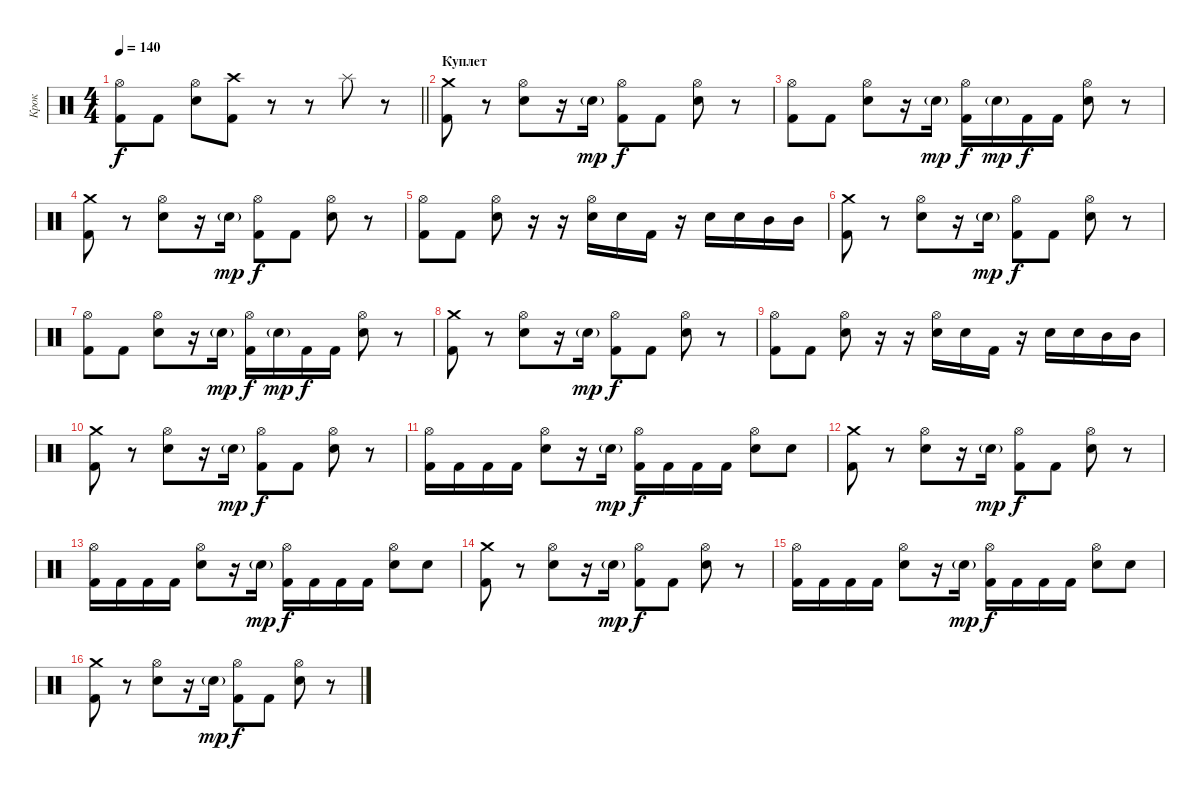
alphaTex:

\track ("Крок" "Крок") {instrument percussion}
\staff {score}
\articulation defaults
\ts (4 4)
\tempo 140
\clef neutral
\barLineRight lightlight
\ks c
("Kick (hit) 2" "Hi-Hat (open)").8{dy f} "Kick (hit) 2".8 ("Electric Snare (hit)" "Hi-Hat (open)").8 ("Kick (hit) 2" "Crash high (hit)").8 r.8 r.8 "Splash (hit)".8 r.8 |
\section ("" "Куплет")
("Kick (hit) 2" "Crash medium (hit)").8 r.8 ("Electric Snare (hit)" "Hi-Hat (open)").8 r.16 "Electric Snare (hit)"{g}.16{dy mp} ("Kick (hit) 2" "Hi-Hat (open)").8{dy f} "Kick (hit) 2".8 ("Electric Snare (hit)" "Hi-Hat (open)").8 r.8 |
("Kick (hit) 2" "Hi-Hat (open)").8 "Kick (hit) 2".8 ("Electric Snare (hit)" "Hi-Hat (open)").8 r.16 "Electric Snare (hit)"{g}.16{dy mp} ("Kick (hit) 2" "Hi-Hat (open)").16{dy f} "Electric Snare (hit)"{g}.16{dy mp} "Kick (hit) 2".16{dy f} "Kick (hit) 2".16 ("Electric Snare (hit)" "Hi-Hat (open)").8 r.8 |
("Kick (hit) 2" "Crash medium (hit)").8 r.8 ("Electric Snare (hit)" "Hi-Hat (open)").8 r.16 "Electric Snare (hit)"{g}.16{dy mp} ("Kick (hit) 2" "Hi-Hat (open)").8{dy f} "Kick (hit) 2".8 ("Electric Snare (hit)" "Hi-Hat (open)").8 r.8 |
("Kick (hit) 2" "Hi-Hat (open)").8 "Kick (hit) 2".8 ("Electric Snare (hit)" "Hi-Hat (open)").8 r.16 r.16 ("Electric Snare (hit)" "Hi-Hat (open)").16 "Electric Snare (hit)".16 "Kick (hit) 2".16 r.16 "Electric Snare (hit)".16 "Electric Snare (hit)".16 "Mid Tom (hit)".16 "Mid Tom (hit)".16 |
("Kick (hit) 2" "Crash medium (hit)").8 r.8 ("Electric Snare (hit)" "Hi-Hat (open)").8 r.16 "Electric Snare (hit)"{g}.16{dy mp} ("Kick (hit) 2" "Hi-Hat (open)").8{dy f} "Kick (hit) 2".8 ("Electric Snare (hit)" "Hi-Hat (open)").8 r.8 |
("Kick (hit) 2" "Hi-Hat (open)").8 "Kick (hit) 2".8 ("Electric Snare (hit)" "Hi-Hat (open)").8 r.16 "Electric Snare (hit)"{g}.16{dy mp} ("Kick (hit) 2" "Hi-Hat (open)").16{dy f} "Electric Snare (hit)"{g}.16{dy mp} "Kick (hit) 2".16{dy f} "Kick (hit) 2".16 ("Electric Snare (hit)" "Hi-Hat (open)").8 r.8 |
("Kick (hit) 2" "Crash medium (hit)").8 r.8 ("Electric Snare (hit)" "Hi-Hat (open)").8 r.16 "Electric Snare (hit)"{g}.16{dy mp} ("Kick (hit) 2" "Hi-Hat (open)").8{dy f} "Kick (hit) 2".8 ("Electric Snare (hit)" "Hi-Hat (open)").8 r.8 |
("Kick (hit) 2" "Hi-Hat (open)").8 "Kick (hit) 2".8 ("Electric Snare (hit)" "Hi-Hat (open)").8 r.16 r.16 ("Electric Snare (hit)" "Hi-Hat (open)").16 "Electric Snare (hit)".16 "Kick (hit) 2".16 r.16 "Electric Snare (hit)".16 "Electric Snare (hit)".16 "Mid Tom (hit)".16 "Mid Tom (hit)".16 |
("Kick (hit) 2" "Crash medium (hit)").8 r.8 ("Electric Snare (hit)" "Hi-Hat (open)").8 r.16 "Electric Snare (hit)"{g}.16{dy mp} ("Kick (hit) 2" "Hi-Hat (open)").8{dy f} "Kick (hit) 2".8 ("Electric Snare (hit)" "Hi-Hat (open)").8 r.8 |
("Kick (hit) 2" "Hi-Hat (open)").16 "Kick (hit) 2".16 "Kick (hit) 2".16 "Kick (hit) 2".16 ("Electric Snare (hit)" "Hi-Hat (open)").8 r.16 "Electric Snare (hit)"{g}.16{dy mp} ("Kick (hit) 2" "Hi-Hat (open)").16{dy f} "Kick (hit) 2".16 "Kick (hit) 2".16 "Kick (hit) 2".16 ("Electric Snare (hit)" "Hi-Hat (open)").8 "Electric Snare (hit)".8 |
("Kick (hit) 2" "Crash medium (hit)").8 r.8 ("Electric Snare (hit)" "Hi-Hat (open)").8 r.16 "Electric Snare (hit)"{g}.16{dy mp} ("Kick (hit) 2" "Hi-Hat (open)").8{dy f} "Kick (hit) 2".8 ("Electric Snare (hit)" "Hi-Hat (open)").8 r.8 |
("Kick (hit) 2" "Hi-Hat (open)").16 "Kick (hit) 2".16 "Kick (hit) 2".16 "Kick (hit) 2".16 ("Electric Snare (hit)" "Hi-Hat (open)").8 r.16 "Electric Snare (hit)"{g}.16{dy mp} ("Kick (hit) 2" "Hi-Hat (open)").16{dy f} "Kick (hit) 2".16 "Kick (hit) 2".16 "Kick (hit) 2".16 ("Electric Snare (hit)" "Hi-Hat (open)").8 "Electric Snare (hit)".8 |
("Kick (hit) 2" "Crash medium (hit)").8 r.8 ("Electric Snare (hit)" "Hi-Hat (open)").8 r.16 "Electric Snare (hit)"{g}.16{dy mp} ("Kick (hit) 2" "Hi-Hat (open)").8{dy f} "Kick (hit) 2".8 ("Electric Snare (hit)" "Hi-Hat (open)").8 r.8 |
("Kick (hit) 2" "Hi-Hat (open)").16 "Kick (hit) 2".16 "Kick (hit) 2".16 "Kick (hit) 2".16 ("Electric Snare (hit)" "Hi-Hat (open)").8 r.16 "Electric Snare (hit)"{g}.16{dy mp} ("Kick (hit) 2" "Hi-Hat (open)").16{dy f} "Kick (hit) 2".16 "Kick (hit) 2".16 "Kick (hit) 2".16 ("Electric Snare (hit)" "Hi-Hat (open)").8 "Electric Snare (hit)".8 |
("Kick (hit) 2" "Crash medium (hit)").8 r.8 ("Electric Snare (hit)" "Hi-Hat (open)").8 r.16 "Electric Snare (hit)"{g}.16{dy mp} ("Kick (hit) 2" "Hi-Hat (open)").8{dy f} "Kick (hit) 2".8 ("Electric Snare (hit)" "Hi-Hat (open)").8 r.8
